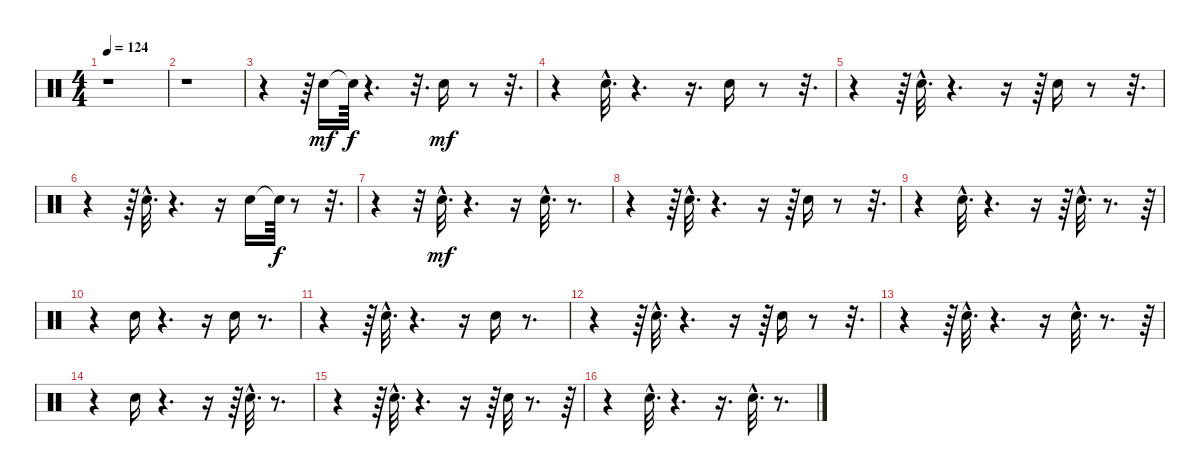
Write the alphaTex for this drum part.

\track "" {instrument percussion}
\staff {score}
\articulation defaults
\ts (4 4)
\tempo 124
\clef neutral
\ks c
r.1{dy f} |
r.1 |
r.4 r.64 "Electric Snare (hit)".16{dy mf} "Snare (hit)"{t}.64{dy f} r.4{d} r.32{d} "Electric Snare (hit)".16{dy mf} r.8 r.32{d} |
r.4 "Electric Snare (hit)"{hac}.32{d} r.4{d} r.16{d} "Electric Snare (hit)".16 r.8 r.32{d} |
r.4 r.64 "Electric Snare (hit)"{hac}.32{d} r.4{d} r.16 r.64 "Electric Snare (hit)".16 r.8 r.32{d} |
r.4 r.64 "Electric Snare (hit)"{hac}.32{d} r.4{d} r.16 "Electric Snare (hit)".16 "Snare (hit)"{t}.64{dy f} r.8 r.32{d} |
r.4 r.32 "Electric Snare (hit)"{hac}.32{d dy mf} r.4{d} r.16 "Electric Snare (hit)"{hac}.32{d} r.8{d} |
r.4 r.64 "Electric Snare (hit)"{hac}.32{d} r.4{d} r.16 r.64 "Electric Snare (hit)".16 r.8 r.32{d} |
r.4 "Electric Snare (hit)"{hac}.32{d} r.4{d} r.16 r.64 "Electric Snare (hit)"{hac}.32{d} r.8{d} r.64 |
r.4 "Electric Snare (hit)".16 r.4{d} r.16 "Electric Snare (hit)".16 r.8{d} |
r.4 r.64 "Electric Snare (hit)"{hac}.32{d} r.4{d} r.16 "Electric Snare (hit)".16 r.8{d} |
r.4 r.64 "Electric Snare (hit)"{hac}.32{d} r.4{d} r.16 r.64 "Electric Snare (hit)".16 r.8 r.32{d} |
r.4 r.64 "Electric Snare (hit)"{hac}.32{d} r.4{d} r.16 "Electric Snare (hit)"{hac}.32{d} r.8{d} r.64 |
r.4 "Electric Snare (hit)".16 r.4{d} r.16 r.64 "Electric Snare (hit)"{hac}.32{d} r.8{d} |
r.4 r.64 "Electric Snare (hit)"{hac}.32{d} r.4{d} r.16 r.64 "Electric Snare (hit)".32 r.8{d} r.64 |
r.4 "Electric Snare (hit)"{hac}.32{d} r.4{d} r.16{d} "Electric Snare (hit)"{hac}.32{d} r.8{d}
